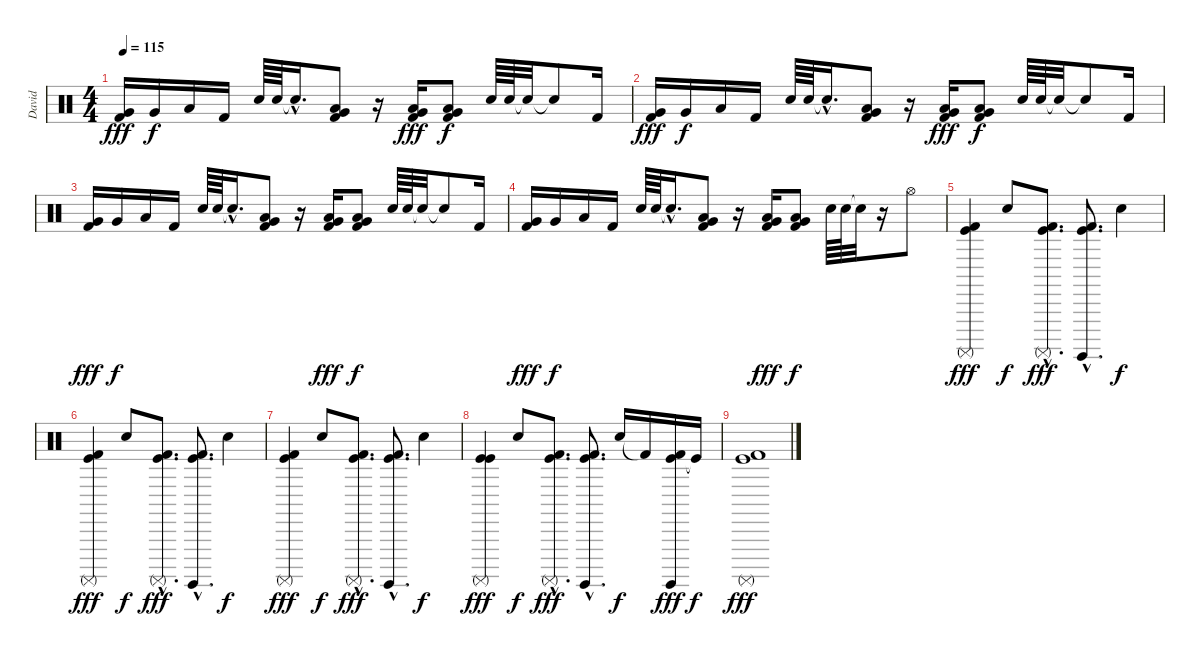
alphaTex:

\track ("David" "David") {instrument percussion}
\staff {score}
\articulation defaults
\ts (4 4)
\tempo 115
\clef neutral
\ks c
("Very Low Tom (hit)" "Kick (hit) 2").16{dy fff} "Very Low Tom (hit)".16{dy f} "Low Floor Tom (hit)".16 "Kick (hit) 2".16 "Snare (hit) 2".64 "Snare (hit) 2".64 "Snare (hit)"{hac t}.16{d} ("Low Tom (hit)" "Very Low Tom (hit)" "Kick (hit) 2").8 r.16 ("Very Low Tom (hit)" "Low Floor Tom (hit)" "Kick (hit) 2").16{dy fff} ("Very Low Tom (hit)" "Low Floor Tom (hit)" "Kick (hit) 2").8{dy f} "Snare (hit) 2".64 "Snare (hit) 2".64 "Snare (hit)"{t}.32 "Snare (hit)"{t}.8 "Kick (hit) 2".16 |
("Very Low Tom (hit)" "Kick (hit) 2").16{dy fff} "Very Low Tom (hit)".16{dy f} "Low Floor Tom (hit)".16 "Kick (hit) 2".16 "Snare (hit) 2".64 "Snare (hit) 2".64 "Snare (hit)"{hac t}.16{d} ("Low Tom (hit)" "Very Low Tom (hit)" "Kick (hit) 2").8 r.16 ("Very Low Tom (hit)" "Low Floor Tom (hit)" "Kick (hit) 2").16{dy fff} ("Very Low Tom (hit)" "Low Floor Tom (hit)" "Kick (hit) 2").8{dy f} "Snare (hit) 2".64 "Snare (hit) 2".64 "Snare (hit)"{t}.32 "Snare (hit)"{t}.8 "Kick (hit) 2".16 |
("Very Low Tom (hit)" "Kick (hit) 2").16{dy fff} "Very Low Tom (hit)".16{dy f} "Low Floor Tom (hit)".16 "Kick (hit) 2".16 "Snare (hit) 2".64 "Snare (hit) 2".64 "Snare (hit)"{hac t}.16{d} ("Low Tom (hit)" "Very Low Tom (hit)" "Kick (hit) 2").8 r.16 ("Very Low Tom (hit)" "Low Floor Tom (hit)" "Kick (hit) 2").16{dy fff} ("Very Low Tom (hit)" "Low Floor Tom (hit)" "Kick (hit) 2").8{dy f} "Snare (hit) 2".64 "Snare (hit) 2".64 "Snare (hit)"{t}.32 "Snare (hit)"{t}.8 "Kick (hit) 2".16 |
("Very Low Tom (hit)" "Kick (hit) 2").16{dy fff} "Very Low Tom (hit)".16{dy f} "Low Floor Tom (hit)".16 "Kick (hit) 2".16 "Snare (hit) 2".64 "Snare (hit) 2".64 "Snare (hit)"{hac t}.16{d} ("Low Tom (hit)" "Very Low Tom (hit)" "Kick (hit) 2").8 r.16 ("Very Low Tom (hit)" "Low Floor Tom (hit)" "Kick (hit) 2").16{dy fff} ("Very Low Tom (hit)" "Low Floor Tom (hit)" "Kick (hit) 2").8{dy f} "Snare (hit) 2".64 "Snare (hit) 2".64 "Snare (hit)"{t}.32 r.16 "Hi-Hat (open)".8 |
("Kick (hit) 2" "Surdo (mute)" "Kick (hit)").4{dy fff volume 16} "Snare (hit) 2".8{dy f} ("Kick (hit)"{hac} "Surdo (mute)"{hac} "Kick (hit) 2"{hac}).8{d dy fff} ("Kick (hit) 2"{hac} "Surdo (hit)"{hac} "Kick (hit)"{hac}).8{d} "Snare (hit) 2".4{dy f} |
("Kick (hit) 2" "Surdo (mute)" "Kick (hit)").4{dy fff volume 16} "Snare (hit) 2".8{dy f} ("Kick (hit)"{hac} "Surdo (mute)"{hac} "Kick (hit) 2"{hac}).8{d dy fff} ("Kick (hit) 2"{hac} "Surdo (hit)"{hac} "Kick (hit)"{hac}).8{d} "Snare (hit) 2".4{dy f} |
("Kick (hit) 2" "Surdo (mute)" "Kick (hit)").4{dy fff volume 16} "Snare (hit) 2".8{dy f} ("Kick (hit)"{hac} "Surdo (mute)"{hac} "Kick (hit) 2"{hac}).8{d dy fff} ("Kick (hit) 2"{hac} "Surdo (hit)"{hac} "Kick (hit)"{hac}).8{d} "Snare (hit) 2".4{dy f} |
("Kick (hit)" "Surdo (mute)" "Kick (hit)").4{dy fff} "Snare (hit) 2".8{dy f} ("Kick (hit)"{hac} "Surdo (mute)"{hac} "Kick (hit) 2"{hac}).8{d dy fff} ("Kick (hit) 2"{hac} "Surdo (hit)"{hac} "Kick (hit)"{hac}).8{d} "Snare (hit) 2".16{dy f} "Kick (hit) 2"{t}.16 ("Kick (hit)" "Surdo (hit)" "Kick (hit) 2").16{dy fff} "Kick (hit)"{t}.16{dy f} |
("Kick (hit) 2" "Surdo (mute)" "Kick (hit)").1{dy fff}
